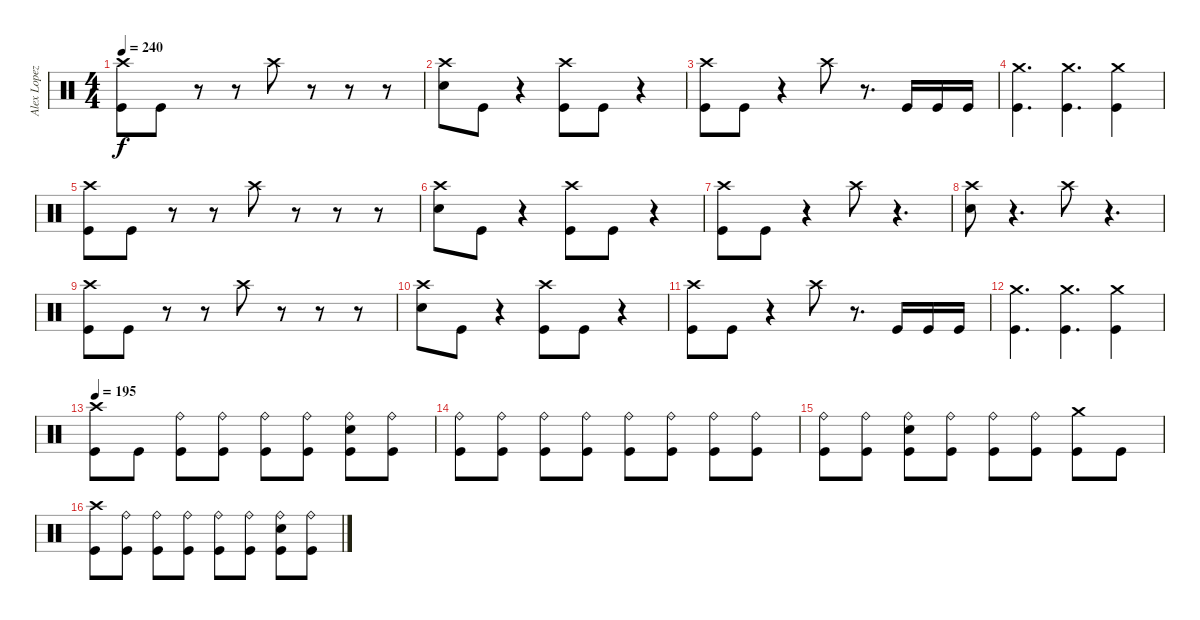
\track ("Alex Lopez" "Alex Lopez") {instrument percussion}
\staff {score}
\articulation defaults
\ts (4 4)
\tempo 240
\clef neutral
\ks c
("Crash high (hit)" "Kick (hit)").8{dy f} "Kick (hit)".8 r.8 r.8 "Crash high (hit)".8 r.8 r.8 r.8 |
("Crash high (hit)" "Electric Snare (hit)").8 "Kick (hit)".8 r.4 ("Crash high (hit)" "Kick (hit)").8 "Kick (hit)".8 r.4 |
("Crash high (hit)" "Kick (hit)").8 "Kick (hit)".8 r.4 "Crash high (hit)".8 r.8{d} "Kick (hit)".16 "Kick (hit)".16 "Kick (hit)".16 |
("Crash medium (hit)" "Kick (hit)").4{d} ("Crash medium (hit)" "Kick (hit)").4{d} ("Crash medium (hit)" "Kick (hit)").4 |
("Crash high (hit)" "Kick (hit)").8 "Kick (hit)".8 r.8 r.8 "Crash high (hit)".8 r.8 r.8 r.8 |
("Crash high (hit)" "Electric Snare (hit)").8 "Kick (hit)".8 r.4 ("Crash high (hit)" "Kick (hit)").8 "Kick (hit)".8 r.4 |
("Crash high (hit)" "Kick (hit)").8 "Kick (hit)".8 r.4 "Crash high (hit)".8 r.4{d} |
("Crash high (hit)" "Electric Snare (hit)").8 r.4{d} "Crash high (hit)".8 r.4{d} |
("Crash high (hit)" "Kick (hit)").8 "Kick (hit)".8 r.8 r.8 "Crash high (hit)".8 r.8 r.8 r.8 |
("Crash high (hit)" "Electric Snare (hit)").8 "Kick (hit)".8 r.4 ("Crash high (hit)" "Kick (hit)").8 "Kick (hit)".8 r.4 |
("Crash high (hit)" "Kick (hit)").8 "Kick (hit)".8 r.4 "Crash high (hit)".8 r.8{d} "Kick (hit)".16 "Kick (hit)".16 "Kick (hit)".16 |
("Crash medium (hit)" "Kick (hit)").4{d} ("Crash medium (hit)" "Kick (hit)").4{d} ("Crash medium (hit)" "Kick (hit)").4 |
\tempo 195
("Crash high (hit)" "Kick (hit)").8 "Kick (hit)".8 ("Ride (bell)" "Kick (hit)").8 ("Ride (bell)" "Kick (hit)").8 ("Ride (bell)" "Kick (hit)").8 ("Ride (bell)" "Kick (hit)").8 ("Ride (bell)" "Electric Snare (hit)" "Kick (hit)").8 ("Ride (bell)" "Kick (hit)").8 |
("Ride (bell)" "Kick (hit)").8 ("Ride (bell)" "Kick (hit)").8 ("Ride (bell)" "Kick (hit)").8 ("Ride (bell)" "Kick (hit)").8 ("Ride (bell)" "Kick (hit)").8 ("Ride (bell)" "Kick (hit)").8 ("Ride (bell)" "Kick (hit)").8 ("Ride (bell)" "Kick (hit)").8 |
("Ride (bell)" "Kick (hit)").8 ("Ride (bell)" "Kick (hit)").8 ("Ride (bell)" "Electric Snare (hit)" "Kick (hit)").8 ("Ride (bell)" "Kick (hit)").8 ("Ride (bell)" "Kick (hit)").8 ("Ride (bell)" "Kick (hit)").8 ("Crash medium (hit)" "Kick (hit)").8 "Kick (hit)".8 |
("Crash high (hit)" "Kick (hit)").8 ("Ride (bell)" "Kick (hit)").8 ("Ride (bell)" "Kick (hit)").8 ("Ride (bell)" "Kick (hit)").8 ("Ride (bell)" "Kick (hit)").8 ("Ride (bell)" "Kick (hit)").8 ("Ride (bell)" "Electric Snare (hit)" "Kick (hit)").8 ("Ride (bell)" "Kick (hit)").8
